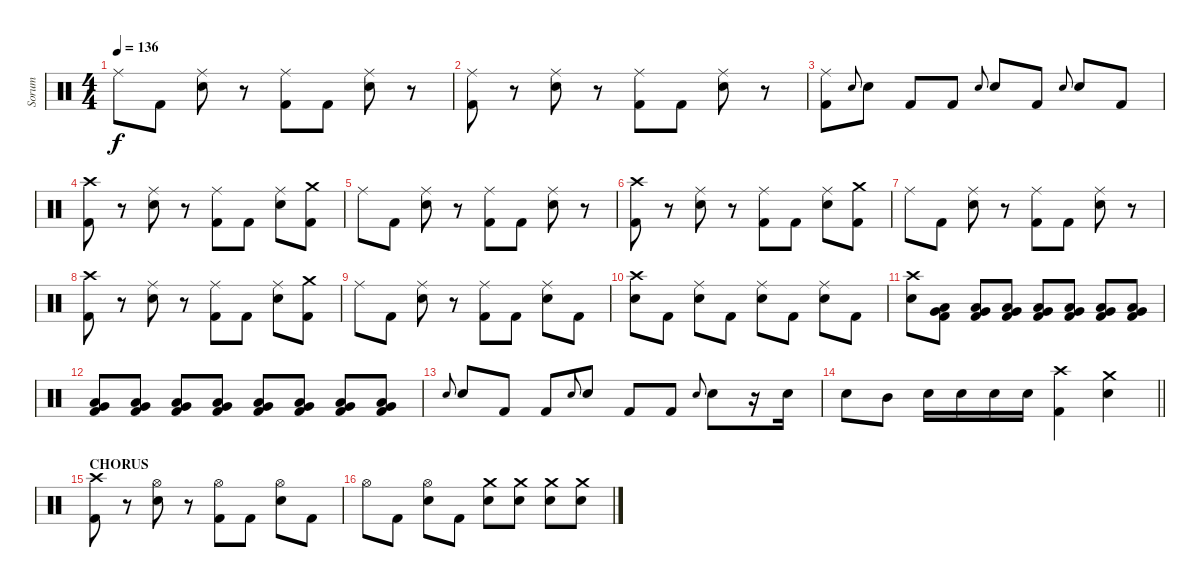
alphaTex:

\track ("Sorum" "Sorum") {instrument percussion}
\staff {score}
\articulation defaults
\ts (4 4)
\tempo 136
\clef neutral
\ks c "Ride (middle)".8{dy f} "Kick (hit) 2".8
("Electric Snare (hit)" "Ride (middle)").8 r.8 ("Kick (hit) 2" "Ride (middle)").8 "Kick (hit) 2".8 ("Electric Snare (hit)" "Ride (middle)").8 r.8 |
("Kick (hit) 2" "Ride (middle)").8 r.8 ("Electric Snare (hit)" "Ride (middle)").8 r.8 ("Kick (hit) 2" "Ride (middle)").8 "Kick (hit) 2".8 ("Electric Snare (hit)" "Ride (middle)").8 r.8 |
("Kick (hit) 2" "Ride (middle)").8 "Electric Snare (hit)".8{gr onbeat} "Electric Snare (hit)".8 "Kick (hit) 2".8 "Kick (hit) 2".8 "Electric Snare (hit)".8{gr onbeat} "Electric Snare (hit)".8 "Kick (hit) 2".8 "Electric Snare (hit)".8{gr onbeat} "Electric Snare (hit)".8 "Kick (hit) 2".8 |
("Crash high (hit)" "Kick (hit) 2").8 r.8 ("Electric Snare (hit)" "Ride (middle)").8 r.8 ("Kick (hit) 2" "Ride (middle)").8 "Kick (hit) 2".8 ("Electric Snare (hit)" "Ride (middle)").8 ("Crash medium (hit)" "Kick (hit) 2").8 |
"Ride (middle)".8 "Kick (hit) 2".8 ("Electric Snare (hit)" "Ride (middle)").8 r.8 ("Kick (hit) 2" "Ride (middle)").8 "Kick (hit) 2".8 ("Electric Snare (hit)" "Ride (middle)").8 r.8 |
("Crash high (hit)" "Kick (hit) 2").8 r.8 ("Electric Snare (hit)" "Ride (middle)").8 r.8 ("Kick (hit) 2" "Ride (middle)").8 "Kick (hit) 2".8 ("Electric Snare (hit)" "Ride (middle)").8 ("Crash medium (hit)" "Kick (hit) 2").8 |
"Ride (middle)".8 "Kick (hit) 2".8 ("Electric Snare (hit)" "Ride (middle)").8 r.8 ("Kick (hit) 2" "Ride (middle)").8 "Kick (hit) 2".8 ("Electric Snare (hit)" "Ride (middle)").8 r.8 |
("Crash high (hit)" "Kick (hit) 2").8 r.8 ("Electric Snare (hit)" "Ride (middle)").8 r.8 ("Kick (hit) 2" "Ride (middle)").8 "Kick (hit) 2".8 ("Electric Snare (hit)" "Ride (middle)").8 ("Crash medium (hit)" "Kick (hit) 2").8 |
"Ride (middle)".8 "Kick (hit) 2".8 ("Electric Snare (hit)" "Ride (middle)").8 r.8 ("Kick (hit) 2" "Ride (middle)").8 "Kick (hit) 2".8 ("Electric Snare (hit)" "Ride (middle)").8 "Kick (hit) 2".8 |
("Crash high (hit)" "Electric Snare (hit)").8 "Kick (hit) 2".8 ("Electric Snare (hit)" "Ride (middle)").8 "Kick (hit) 2".8 ("Electric Snare (hit)" "Ride (middle)").8 "Kick (hit) 2".8 ("Electric Snare (hit)" "Ride (middle)").8 "Kick (hit) 2".8 |
("Crash high (hit)" "Electric Snare (hit)").8 ("Low Tom (hit)" "Kick (hit) 2" "Very Low Tom (hit)").8 ("Low Tom (hit)" "Kick (hit) 2" "Very Low Tom (hit)").8 ("Low Tom (hit)" "Kick (hit) 2" "Very Low Tom (hit)").8 ("Low Tom (hit)" "Kick (hit) 2" "Very Low Tom (hit)").8 ("Low Tom (hit)" "Kick (hit) 2" "Very Low Tom (hit)").8 ("Low Tom (hit)" "Kick (hit) 2" "Very Low Tom (hit)").8 ("Low Tom (hit)" "Kick (hit) 2" "Very Low Tom (hit)").8 |
("Low Tom (hit)" "Kick (hit) 2" "Very Low Tom (hit)").8 ("Low Tom (hit)" "Kick (hit) 2" "Very Low Tom (hit)").8 ("Low Tom (hit)" "Kick (hit) 2" "Very Low Tom (hit)").8 ("Low Tom (hit)" "Kick (hit) 2" "Very Low Tom (hit)").8 ("Low Tom (hit)" "Kick (hit) 2" "Very Low Tom (hit)").8 ("Low Tom (hit)" "Kick (hit) 2" "Very Low Tom (hit)").8 ("Low Tom (hit)" "Kick (hit) 2" "Very Low Tom (hit)").8 ("Low Tom (hit)" "Kick (hit) 2" "Very Low Tom (hit)").8 |
"Electric Snare (hit)".8{gr onbeat} "Electric Snare (hit)".8 "Kick (hit) 2".8 "Kick (hit) 2".8 "Electric Snare (hit)".8{gr onbeat} "Electric Snare (hit)".8 "Kick (hit) 2".8 "Kick (hit) 2".8 "Electric Snare (hit)".8{gr onbeat} "Electric Snare (hit)".8 r.16 "Electric Snare (hit)".16 |
\barLineRight lightlight "Electric Snare (hit)".8 "Mid Tom (hit)".8 "Electric Snare (hit)".16 "Electric Snare (hit)".16 "Electric Snare (hit)".16 "Electric Snare (hit)".16
("Crash high (hit)" "Kick (hit) 2").4 ("Electric Snare (hit)" "Crash medium (hit)").4 |
\section ("" "CHORUS")
("Crash high (hit)" "Kick (hit) 2").8 r.8 ("Electric Snare (hit)" "Hi-Hat (open)").8 r.8 ("Kick (hit) 2" "Hi-Hat (open)").8 "Kick (hit) 2".8 ("Electric Snare (hit)" "Hi-Hat (open)").8 "Kick (hit) 2".8 |
"Hi-Hat (open)".8 "Kick (hit) 2".8 ("Electric Snare (hit)" "Hi-Hat (open)").8 "Kick (hit) 2".8 ("Crash medium (hit)" "Electric Snare (hit)").8 ("Crash medium (hit)" "Electric Snare (hit)").8 ("Crash medium (hit)" "Electric Snare (hit)").8 ("Crash medium (hit)" "Electric Snare (hit)").8
